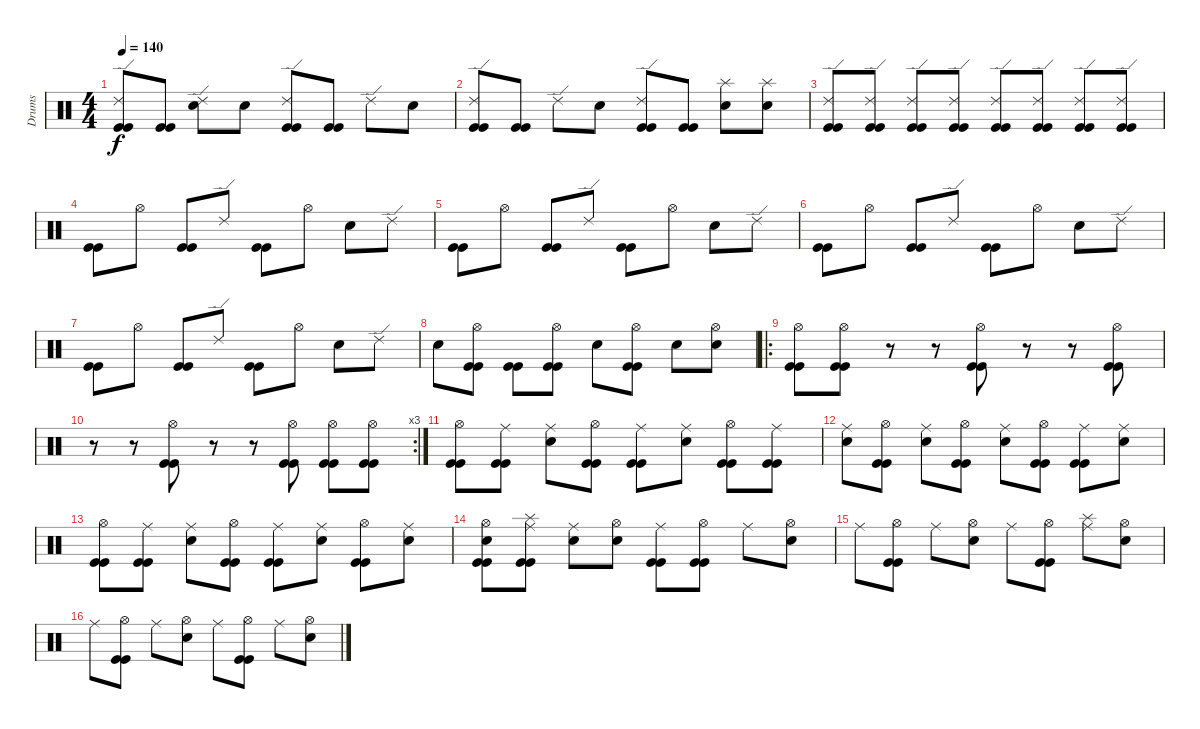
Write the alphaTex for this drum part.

\track ("Drums" "Drums") {instrument percussion}
\staff {score}
\articulation defaults
\ts (4 4)
\tempo 140
\clef neutral
\ks c
("Ride (edge) 2" "Kick (hit)" "Kick (hit)").8{dy f} ("Kick (hit)" "Kick (hit)").8 ("Ride (edge) 2" "Electric Snare (hit)").8 "Electric Snare (hit)".8 ("Ride (edge) 2" "Kick (hit)" "Kick (hit)").8 ("Kick (hit)" "Kick (hit)").8 "Ride (edge) 2".8 "Electric Snare (hit)".8 |
("Ride (edge) 2" "Kick (hit)" "Kick (hit)").8 ("Kick (hit)" "Kick (hit)").8 "Ride (edge) 2".8 "Electric Snare (hit)".8 ("Ride (edge) 2" "Kick (hit)" "Kick (hit)").8 ("Kick (hit)" "Kick (hit)").8 ("Splash (hit)" "Electric Snare (hit)").8 ("Splash (hit)" "Electric Snare (hit)").8 |
("Ride (edge) 2" "Kick (hit)" "Kick (hit)").8 ("Ride (edge) 2" "Kick (hit)" "Kick (hit)").8 ("Ride (edge) 2" "Kick (hit)" "Kick (hit)").8 ("Ride (edge) 2" "Kick (hit)" "Kick (hit)").8 ("Ride (edge) 2" "Kick (hit)" "Kick (hit)").8 ("Ride (edge) 2" "Kick (hit)" "Kick (hit)").8 ("Ride (edge) 2" "Kick (hit)" "Kick (hit)").8 ("Ride (edge) 2" "Kick (hit)" "Kick (hit)").8 |
("Kick (hit)" "Kick (hit)").8 "Hi-Hat (open)".8 ("Kick (hit)" "Kick (hit)").8 "Ride (edge) 2".8 ("Kick (hit)" "Kick (hit)").8 "Hi-Hat (open)".8 "Electric Snare (hit)".8 "Ride (edge) 2".8 |
("Kick (hit)" "Kick (hit)").8 "Hi-Hat (open)".8 ("Kick (hit)" "Kick (hit)").8 "Ride (edge) 2".8 ("Kick (hit)" "Kick (hit)").8 "Hi-Hat (open)".8 "Electric Snare (hit)".8 "Ride (edge) 2".8 |
("Kick (hit)" "Kick (hit)").8 "Hi-Hat (open)".8 ("Kick (hit)" "Kick (hit)").8 "Ride (edge) 2".8 ("Kick (hit)" "Kick (hit)").8 "Hi-Hat (open)".8 "Electric Snare (hit)".8 "Ride (edge) 2".8 |
("Kick (hit)" "Kick (hit)").8 "Hi-Hat (open)".8 ("Kick (hit)" "Kick (hit)").8 "Ride (edge) 2".8 ("Kick (hit)" "Kick (hit)").8 "Hi-Hat (open)".8 "Electric Snare (hit)".8 "Ride (edge) 2".8 |
"Electric Snare (hit)".8 ("Hi-Hat (open)" "Kick (hit)" "Kick (hit)").8 ("Kick (hit)" "Kick (hit)").8 ("Hi-Hat (open)" "Kick (hit)" "Kick (hit)").8 "Electric Snare (hit)".8 ("Hi-Hat (open)" "Kick (hit)" "Kick (hit)").8 "Electric Snare (hit)".8 ("Hi-Hat (open)" "Electric Snare (hit)").8 |
\ro
("Hi-Hat (open)" "Kick (hit)" "Kick (hit)").8 ("Hi-Hat (open)" "Kick (hit)" "Kick (hit)").8 r.8 r.8 ("Hi-Hat (open)" "Kick (hit)" "Kick (hit)").8 r.8 r.8 ("Hi-Hat (open)" "Kick (hit)" "Kick (hit)").8 |
\rc 3
r.8 r.8 ("Hi-Hat (open)" "Kick (hit)" "Kick (hit)").8 r.8 r.8 ("Hi-Hat (open)" "Kick (hit)" "Kick (hit)").8 ("Hi-Hat (open)" "Kick (hit)" "Kick (hit)").8 ("Hi-Hat (open)" "Kick (hit)" "Kick (hit)").8 |
("Hi-Hat (open)" "Kick (hit)" "Kick (hit)").8 ("Ride (middle)" "Kick (hit)" "Kick (hit)").8 ("Ride (middle)" "Electric Snare (hit)").8 ("Hi-Hat (open)" "Kick (hit)" "Kick (hit)").8 ("Ride (middle)" "Kick (hit)" "Kick (hit)").8 ("Ride (middle)" "Electric Snare (hit)").8 ("Hi-Hat (open)" "Kick (hit)" "Kick (hit)").8 ("Ride (middle)" "Kick (hit)" "Kick (hit)").8 |
("Ride (middle)" "Electric Snare (hit)").8 ("Hi-Hat (open)" "Kick (hit)" "Kick (hit)").8 ("Ride (middle)" "Electric Snare (hit)").8 ("Hi-Hat (open)" "Kick (hit)" "Kick (hit)").8 ("Ride (middle)" "Electric Snare (hit)").8 ("Hi-Hat (open)" "Kick (hit)" "Kick (hit)").8 ("Ride (middle)" "Kick (hit)" "Kick (hit)").8 ("Ride (middle)" "Electric Snare (hit)").8 |
("Hi-Hat (open)" "Kick (hit)" "Kick (hit)").8 ("Ride (middle)" "Kick (hit)" "Kick (hit)").8 ("Ride (middle)" "Electric Snare (hit)").8 ("Hi-Hat (open)" "Kick (hit)" "Kick (hit)").8 ("Ride (middle)" "Kick (hit)" "Kick (hit)").8 ("Ride (middle)" "Electric Snare (hit)").8 ("Hi-Hat (open)" "Kick (hit)" "Kick (hit)").8 ("Ride (middle)" "Electric Snare (hit)").8 |
("Hi-Hat (open)" "Electric Snare (hit)" "Kick (hit)" "Kick (hit)").8 ("Ride (middle)" "Splash (hit)" "Kick (hit)" "Kick (hit)").8 ("Ride (middle)" "Electric Snare (hit)").8 ("Hi-Hat (open)" "Electric Snare (hit)").8 ("Ride (middle)" "Kick (hit)" "Kick (hit)").8 ("Hi-Hat (open)" "Kick (hit)" "Kick (hit)").8 "Ride (middle)".8 ("Hi-Hat (open)" "Electric Snare (hit)").8 |
"Ride (middle)".8 ("Hi-Hat (open)" "Kick (hit)" "Kick (hit)").8 "Ride (middle)".8 ("Hi-Hat (open)" "Electric Snare (hit)").8 "Ride (middle)".8 ("Hi-Hat (open)" "Kick (hit)" "Kick (hit)").8 ("Ride (middle)" "Splash (hit)").8 ("Hi-Hat (open)" "Electric Snare (hit)").8 |
"Ride (middle)".8 ("Hi-Hat (open)" "Kick (hit)" "Kick (hit)").8 "Ride (middle)".8 ("Hi-Hat (open)" "Electric Snare (hit)").8 "Ride (middle)".8 ("Hi-Hat (open)" "Kick (hit)" "Kick (hit)").8 "Ride (middle)".8 ("Hi-Hat (open)" "Electric Snare (hit)").8
